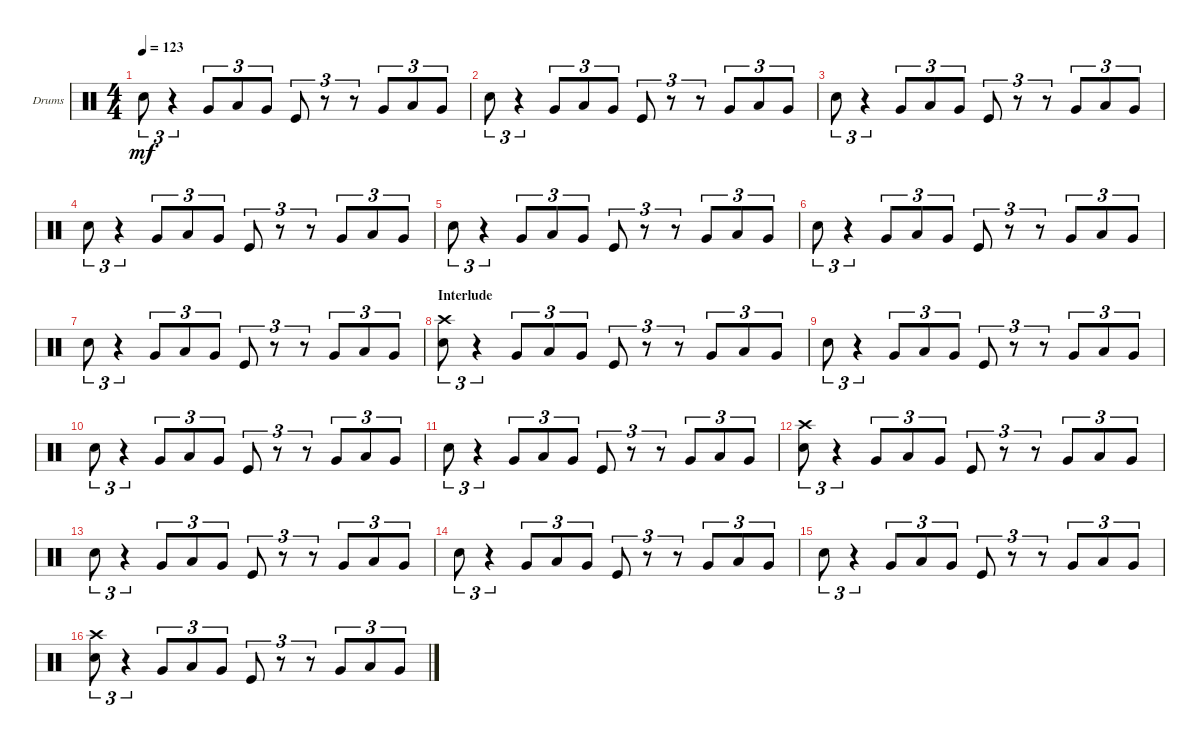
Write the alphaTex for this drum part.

\defaultSystemsLayout 4
\bracketExtendMode groupsimilarinstruments
\firstSystemTrackNameOrientation horizontal
\otherSystemsTrackNameOrientation horizontal
\track ("Drumkit" "Drums") {multiBarRest instrument percussion}
\staff {score}
\articulation defaults
\ts (4 4)
\tempo 123
\clef neutral
\ks c "Snare (hit) 2".8{tu (3 2) dy mf}
r.4{tu (3 2)} "Very Low Tom (hit)".8{tu (3 2)} "Low Tom (hit)".8{tu (3 2)} "Very Low Tom (hit)".8{tu (3 2)} "Kick (hit)".8{tu (3 2)} r.8{tu (3 2)} r.8{tu (3 2)} "Very Low Tom (hit)".8{tu (3 2)} "Low Tom (hit)".8{tu (3 2)} "Very Low Tom (hit)".8{tu (3 2)} |
"Snare (hit) 2".8{tu (3 2)} r.4{tu (3 2)} "Very Low Tom (hit)".8{tu (3 2)} "Low Tom (hit)".8{tu (3 2)} "Very Low Tom (hit)".8{tu (3 2)} "Kick (hit)".8{tu (3 2)} r.8{tu (3 2)} r.8{tu (3 2)} "Very Low Tom (hit)".8{tu (3 2)} "Low Tom (hit)".8{tu (3 2)} "Very Low Tom (hit)".8{tu (3 2)} |
"Snare (hit) 2".8{tu (3 2)} r.4{tu (3 2)} "Very Low Tom (hit)".8{tu (3 2)} "Low Tom (hit)".8{tu (3 2)} "Very Low Tom (hit)".8{tu (3 2)} "Kick (hit)".8{tu (3 2)} r.8{tu (3 2)} r.8{tu (3 2)} "Very Low Tom (hit)".8{tu (3 2)} "Low Tom (hit)".8{tu (3 2)} "Very Low Tom (hit)".8{tu (3 2)} |
"Snare (hit) 2".8{tu (3 2)} r.4{tu (3 2)} "Very Low Tom (hit)".8{tu (3 2)} "Low Tom (hit)".8{tu (3 2)} "Very Low Tom (hit)".8{tu (3 2)} "Kick (hit)".8{tu (3 2)} r.8{tu (3 2)} r.8{tu (3 2)} "Very Low Tom (hit)".8{tu (3 2)} "Low Tom (hit)".8{tu (3 2)} "Very Low Tom (hit)".8{tu (3 2)} |
"Snare (hit) 2".8{tu (3 2)} r.4{tu (3 2)} "Very Low Tom (hit)".8{tu (3 2)} "Low Tom (hit)".8{tu (3 2)} "Very Low Tom (hit)".8{tu (3 2)} "Kick (hit)".8{tu (3 2)} r.8{tu (3 2)} r.8{tu (3 2)} "Very Low Tom (hit)".8{tu (3 2)} "Low Tom (hit)".8{tu (3 2)} "Very Low Tom (hit)".8{tu (3 2)} |
"Snare (hit) 2".8{tu (3 2)} r.4{tu (3 2)} "Very Low Tom (hit)".8{tu (3 2)} "Low Tom (hit)".8{tu (3 2)} "Very Low Tom (hit)".8{tu (3 2)} "Kick (hit)".8{tu (3 2)} r.8{tu (3 2)} r.8{tu (3 2)} "Very Low Tom (hit)".8{tu (3 2)} "Low Tom (hit)".8{tu (3 2)} "Very Low Tom (hit)".8{tu (3 2)} |
"Snare (hit) 2".8{tu (3 2)} r.4{tu (3 2)} "Very Low Tom (hit)".8{tu (3 2)} "Low Tom (hit)".8{tu (3 2)} "Very Low Tom (hit)".8{tu (3 2)} "Kick (hit)".8{tu (3 2)} r.8{tu (3 2)} r.8{tu (3 2)} "Very Low Tom (hit)".8{tu (3 2)} "Low Tom (hit)".8{tu (3 2)} "Very Low Tom (hit)".8{tu (3 2)} |
\section ("" "Interlude")
("Snare (hit) 2" "Crash high (hit)").8{tu (3 2)} r.4{tu (3 2)} "Very Low Tom (hit)".8{tu (3 2)} "Low Tom (hit)".8{tu (3 2)} "Very Low Tom (hit)".8{tu (3 2)} "Kick (hit)".8{tu (3 2)} r.8{tu (3 2)} r.8{tu (3 2)} "Very Low Tom (hit)".8{tu (3 2)} "Low Tom (hit)".8{tu (3 2)} "Very Low Tom (hit)".8{tu (3 2)} |
"Snare (hit) 2".8{tu (3 2)} r.4{tu (3 2)} "Very Low Tom (hit)".8{tu (3 2)} "Low Tom (hit)".8{tu (3 2)} "Very Low Tom (hit)".8{tu (3 2)} "Kick (hit)".8{tu (3 2)} r.8{tu (3 2)} r.8{tu (3 2)} "Very Low Tom (hit)".8{tu (3 2)} "Low Tom (hit)".8{tu (3 2)} "Very Low Tom (hit)".8{tu (3 2)} |
"Snare (hit) 2".8{tu (3 2)} r.4{tu (3 2)} "Very Low Tom (hit)".8{tu (3 2)} "Low Tom (hit)".8{tu (3 2)} "Very Low Tom (hit)".8{tu (3 2)} "Kick (hit)".8{tu (3 2)} r.8{tu (3 2)} r.8{tu (3 2)} "Very Low Tom (hit)".8{tu (3 2)} "Low Tom (hit)".8{tu (3 2)} "Very Low Tom (hit)".8{tu (3 2)} |
"Snare (hit) 2".8{tu (3 2)} r.4{tu (3 2)} "Very Low Tom (hit)".8{tu (3 2)} "Low Tom (hit)".8{tu (3 2)} "Very Low Tom (hit)".8{tu (3 2)} "Kick (hit)".8{tu (3 2)} r.8{tu (3 2)} r.8{tu (3 2)} "Very Low Tom (hit)".8{tu (3 2)} "Low Tom (hit)".8{tu (3 2)} "Very Low Tom (hit)".8{tu (3 2)} |
("Snare (hit) 2" "Crash high (hit)").8{tu (3 2)} r.4{tu (3 2)} "Very Low Tom (hit)".8{tu (3 2)} "Low Tom (hit)".8{tu (3 2)} "Very Low Tom (hit)".8{tu (3 2)} "Kick (hit)".8{tu (3 2)} r.8{tu (3 2)} r.8{tu (3 2)} "Very Low Tom (hit)".8{tu (3 2)} "Low Tom (hit)".8{tu (3 2)} "Very Low Tom (hit)".8{tu (3 2)} |
"Snare (hit) 2".8{tu (3 2)} r.4{tu (3 2)} "Very Low Tom (hit)".8{tu (3 2)} "Low Tom (hit)".8{tu (3 2)} "Very Low Tom (hit)".8{tu (3 2)} "Kick (hit)".8{tu (3 2)} r.8{tu (3 2)} r.8{tu (3 2)} "Very Low Tom (hit)".8{tu (3 2)} "Low Tom (hit)".8{tu (3 2)} "Very Low Tom (hit)".8{tu (3 2)} |
"Snare (hit) 2".8{tu (3 2)} r.4{tu (3 2)} "Very Low Tom (hit)".8{tu (3 2)} "Low Tom (hit)".8{tu (3 2)} "Very Low Tom (hit)".8{tu (3 2)} "Kick (hit)".8{tu (3 2)} r.8{tu (3 2)} r.8{tu (3 2)} "Very Low Tom (hit)".8{tu (3 2)} "Low Tom (hit)".8{tu (3 2)} "Very Low Tom (hit)".8{tu (3 2)} |
"Snare (hit) 2".8{tu (3 2)} r.4{tu (3 2)} "Very Low Tom (hit)".8{tu (3 2)} "Low Tom (hit)".8{tu (3 2)} "Very Low Tom (hit)".8{tu (3 2)} "Kick (hit)".8{tu (3 2)} r.8{tu (3 2)} r.8{tu (3 2)} "Very Low Tom (hit)".8{tu (3 2)} "Low Tom (hit)".8{tu (3 2)} "Very Low Tom (hit)".8{tu (3 2)} |
("Snare (hit) 2" "Crash high (hit)").8{tu (3 2)} r.4{tu (3 2)} "Very Low Tom (hit)".8{tu (3 2)} "Low Tom (hit)".8{tu (3 2)} "Very Low Tom (hit)".8{tu (3 2)} "Kick (hit)".8{tu (3 2)} r.8{tu (3 2)} r.8{tu (3 2)} "Very Low Tom (hit)".8{tu (3 2)} "Low Tom (hit)".8{tu (3 2)} "Very Low Tom (hit)".8{tu (3 2)}
